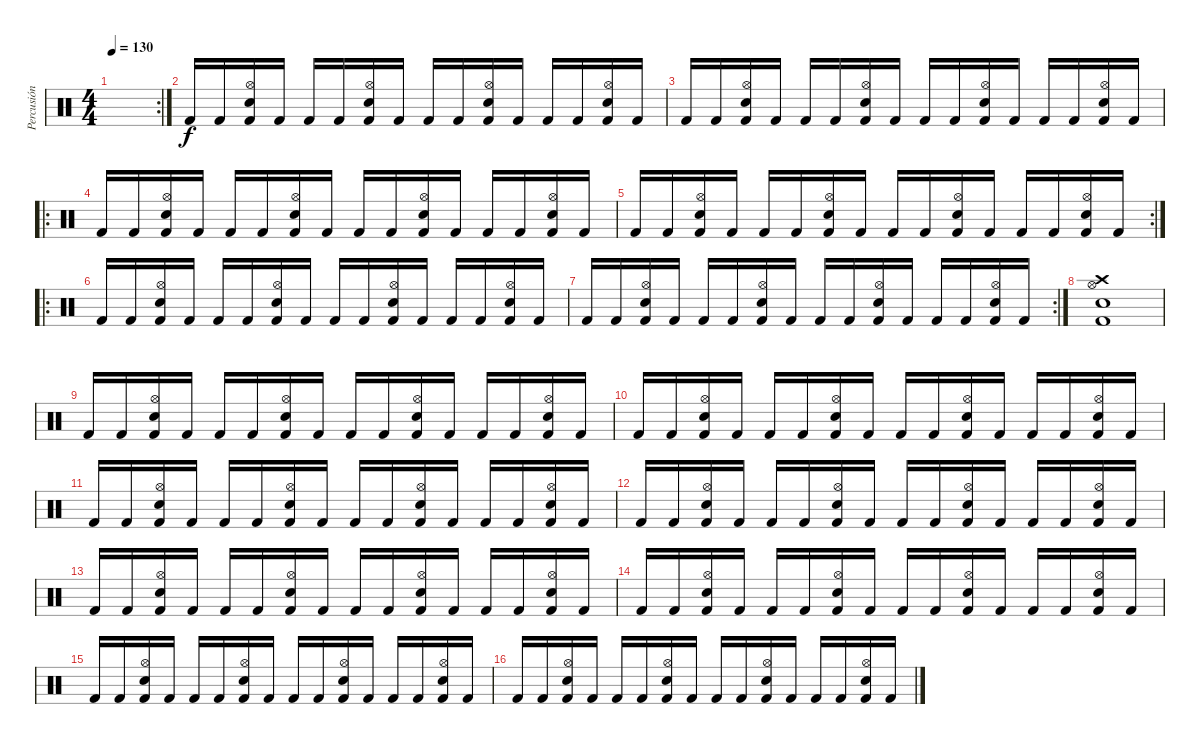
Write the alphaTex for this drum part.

\track ("Percusión" "Percusión") {instrument percussion}
\staff {score}
\articulation defaults
\rc 2
\ts (4 4)
\tempo 130
\clef neutral
\ks c
|
"Kick (hit) 2".16 "Kick (hit) 2".16 ("Hi-Hat (open)" "Electric Snare (hit)" "Kick (hit) 2").16 "Kick (hit) 2".16 "Kick (hit) 2".16 "Kick (hit) 2".16 ("Hi-Hat (open)" "Electric Snare (hit)" "Kick (hit) 2").16 "Kick (hit) 2".16 "Kick (hit) 2".16 "Kick (hit) 2".16 ("Electric Snare (hit)" "Kick (hit) 2" "Hi-Hat (open)").16 "Kick (hit) 2".16 "Kick (hit) 2".16 "Kick (hit) 2".16 ("Electric Snare (hit)" "Kick (hit) 2" "Hi-Hat (open)").16 "Kick (hit) 2".16 |
"Kick (hit) 2".16 "Kick (hit) 2".16 ("Hi-Hat (open)" "Electric Snare (hit)" "Kick (hit) 2").16 "Kick (hit) 2".16 "Kick (hit) 2".16 "Kick (hit) 2".16 ("Hi-Hat (open)" "Electric Snare (hit)" "Kick (hit) 2").16 "Kick (hit) 2".16 "Kick (hit) 2".16 "Kick (hit) 2".16 ("Electric Snare (hit)" "Kick (hit) 2" "Hi-Hat (open)").16 "Kick (hit) 2".16 "Kick (hit) 2".16 "Kick (hit) 2".16 ("Electric Snare (hit)" "Kick (hit) 2" "Hi-Hat (open)").16 "Kick (hit) 2".16 |
\ro "Kick (hit) 2".16 "Kick (hit) 2".16
("Hi-Hat (open)" "Electric Snare (hit)" "Kick (hit) 2").16 "Kick (hit) 2".16 "Kick (hit) 2".16 "Kick (hit) 2".16 ("Hi-Hat (open)" "Electric Snare (hit)" "Kick (hit) 2").16 "Kick (hit) 2".16 "Kick (hit) 2".16 "Kick (hit) 2".16 ("Electric Snare (hit)" "Kick (hit) 2" "Hi-Hat (open)").16 "Kick (hit) 2".16 "Kick (hit) 2".16 "Kick (hit) 2".16 ("Electric Snare (hit)" "Kick (hit) 2" "Hi-Hat (open)").16 "Kick (hit) 2".16 |
\rc 2 "Kick (hit) 2".16 "Kick (hit) 2".16
("Hi-Hat (open)" "Electric Snare (hit)" "Kick (hit) 2").16 "Kick (hit) 2".16 "Kick (hit) 2".16 "Kick (hit) 2".16 ("Hi-Hat (open)" "Electric Snare (hit)" "Kick (hit) 2").16 "Kick (hit) 2".16 "Kick (hit) 2".16 "Kick (hit) 2".16 ("Electric Snare (hit)" "Kick (hit) 2" "Hi-Hat (open)").16 "Kick (hit) 2".16 "Kick (hit) 2".16 "Kick (hit) 2".16 ("Electric Snare (hit)" "Kick (hit) 2" "Hi-Hat (open)").16 "Kick (hit) 2".16 |
\ro "Kick (hit) 2".16 "Kick (hit) 2".16
("Hi-Hat (open)" "Electric Snare (hit)" "Kick (hit) 2").16 "Kick (hit) 2".16 "Kick (hit) 2".16 "Kick (hit) 2".16 ("Hi-Hat (open)" "Electric Snare (hit)" "Kick (hit) 2").16 "Kick (hit) 2".16 "Kick (hit) 2".16 "Kick (hit) 2".16 ("Electric Snare (hit)" "Kick (hit) 2" "Hi-Hat (open)").16 "Kick (hit) 2".16 "Kick (hit) 2".16 "Kick (hit) 2".16 ("Electric Snare (hit)" "Kick (hit) 2" "Hi-Hat (open)").16 "Kick (hit) 2".16 |
\rc 2 "Kick (hit) 2".16 "Kick (hit) 2".16
("Hi-Hat (open)" "Electric Snare (hit)" "Kick (hit) 2").16 "Kick (hit) 2".16 "Kick (hit) 2".16 "Kick (hit) 2".16 ("Hi-Hat (open)" "Electric Snare (hit)" "Kick (hit) 2").16 "Kick (hit) 2".16 "Kick (hit) 2".16 "Kick (hit) 2".16 ("Electric Snare (hit)" "Kick (hit) 2" "Hi-Hat (open)").16 "Kick (hit) 2".16 "Kick (hit) 2".16 "Kick (hit) 2".16 ("Electric Snare (hit)" "Kick (hit) 2" "Hi-Hat (open)").16 "Kick (hit) 2".16 |
("Electric Snare (hit)" "Kick (hit) 2" "Hi-Hat (open)" "Crash high (hit)").1 |
"Kick (hit) 2".16 "Kick (hit) 2".16 ("Hi-Hat (open)" "Electric Snare (hit)" "Kick (hit) 2").16 "Kick (hit) 2".16 "Kick (hit) 2".16 "Kick (hit) 2".16 ("Hi-Hat (open)" "Electric Snare (hit)" "Kick (hit) 2").16 "Kick (hit) 2".16 "Kick (hit) 2".16 "Kick (hit) 2".16 ("Electric Snare (hit)" "Kick (hit) 2" "Hi-Hat (open)").16 "Kick (hit) 2".16 "Kick (hit) 2".16 "Kick (hit) 2".16 ("Electric Snare (hit)" "Kick (hit) 2" "Hi-Hat (open)").16 "Kick (hit) 2".16 |
"Kick (hit) 2".16 "Kick (hit) 2".16 ("Hi-Hat (open)" "Electric Snare (hit)" "Kick (hit) 2").16 "Kick (hit) 2".16 "Kick (hit) 2".16 "Kick (hit) 2".16 ("Hi-Hat (open)" "Electric Snare (hit)" "Kick (hit) 2").16 "Kick (hit) 2".16 "Kick (hit) 2".16 "Kick (hit) 2".16 ("Electric Snare (hit)" "Kick (hit) 2" "Hi-Hat (open)").16 "Kick (hit) 2".16 "Kick (hit) 2".16 "Kick (hit) 2".16 ("Electric Snare (hit)" "Kick (hit) 2" "Hi-Hat (open)").16 "Kick (hit) 2".16 |
"Kick (hit) 2".16 "Kick (hit) 2".16 ("Hi-Hat (open)" "Electric Snare (hit)" "Kick (hit) 2").16 "Kick (hit) 2".16 "Kick (hit) 2".16 "Kick (hit) 2".16 ("Hi-Hat (open)" "Electric Snare (hit)" "Kick (hit) 2").16 "Kick (hit) 2".16 "Kick (hit) 2".16 "Kick (hit) 2".16 ("Electric Snare (hit)" "Kick (hit) 2" "Hi-Hat (open)").16 "Kick (hit) 2".16 "Kick (hit) 2".16 "Kick (hit) 2".16 ("Electric Snare (hit)" "Kick (hit) 2" "Hi-Hat (open)").16 "Kick (hit) 2".16 |
"Kick (hit) 2".16 "Kick (hit) 2".16 ("Hi-Hat (open)" "Electric Snare (hit)" "Kick (hit) 2").16 "Kick (hit) 2".16 "Kick (hit) 2".16 "Kick (hit) 2".16 ("Hi-Hat (open)" "Electric Snare (hit)" "Kick (hit) 2").16 "Kick (hit) 2".16 "Kick (hit) 2".16 "Kick (hit) 2".16 ("Electric Snare (hit)" "Kick (hit) 2" "Hi-Hat (open)").16 "Kick (hit) 2".16 "Kick (hit) 2".16 "Kick (hit) 2".16 ("Electric Snare (hit)" "Kick (hit) 2" "Hi-Hat (open)").16 "Kick (hit) 2".16 |
"Kick (hit) 2".16 "Kick (hit) 2".16 ("Hi-Hat (open)" "Electric Snare (hit)" "Kick (hit) 2").16 "Kick (hit) 2".16 "Kick (hit) 2".16 "Kick (hit) 2".16 ("Hi-Hat (open)" "Electric Snare (hit)" "Kick (hit) 2").16 "Kick (hit) 2".16 "Kick (hit) 2".16 "Kick (hit) 2".16 ("Electric Snare (hit)" "Kick (hit) 2" "Hi-Hat (open)").16 "Kick (hit) 2".16 "Kick (hit) 2".16 "Kick (hit) 2".16 ("Electric Snare (hit)" "Kick (hit) 2" "Hi-Hat (open)").16 "Kick (hit) 2".16 |
"Kick (hit) 2".16 "Kick (hit) 2".16 ("Hi-Hat (open)" "Electric Snare (hit)" "Kick (hit) 2").16 "Kick (hit) 2".16 "Kick (hit) 2".16 "Kick (hit) 2".16 ("Hi-Hat (open)" "Electric Snare (hit)" "Kick (hit) 2").16 "Kick (hit) 2".16 "Kick (hit) 2".16 "Kick (hit) 2".16 ("Electric Snare (hit)" "Kick (hit) 2" "Hi-Hat (open)").16 "Kick (hit) 2".16 "Kick (hit) 2".16 "Kick (hit) 2".16 ("Electric Snare (hit)" "Kick (hit) 2" "Hi-Hat (open)").16 "Kick (hit) 2".16 |
"Kick (hit) 2".16 "Kick (hit) 2".16 ("Hi-Hat (open)" "Electric Snare (hit)" "Kick (hit) 2").16 "Kick (hit) 2".16 "Kick (hit) 2".16 "Kick (hit) 2".16 ("Hi-Hat (open)" "Electric Snare (hit)" "Kick (hit) 2").16 "Kick (hit) 2".16 "Kick (hit) 2".16 "Kick (hit) 2".16 ("Electric Snare (hit)" "Kick (hit) 2" "Hi-Hat (open)").16 "Kick (hit) 2".16 "Kick (hit) 2".16 "Kick (hit) 2".16 ("Electric Snare (hit)" "Kick (hit) 2" "Hi-Hat (open)").16 "Kick (hit) 2".16 |
"Kick (hit) 2".16 "Kick (hit) 2".16 ("Hi-Hat (open)" "Electric Snare (hit)" "Kick (hit) 2").16 "Kick (hit) 2".16 "Kick (hit) 2".16 "Kick (hit) 2".16 ("Hi-Hat (open)" "Electric Snare (hit)" "Kick (hit) 2").16 "Kick (hit) 2".16 "Kick (hit) 2".16 "Kick (hit) 2".16 ("Electric Snare (hit)" "Kick (hit) 2" "Hi-Hat (open)").16 "Kick (hit) 2".16 "Kick (hit) 2".16 "Kick (hit) 2".16 ("Electric Snare (hit)" "Kick (hit) 2" "Hi-Hat (open)").16 "Kick (hit) 2".16
